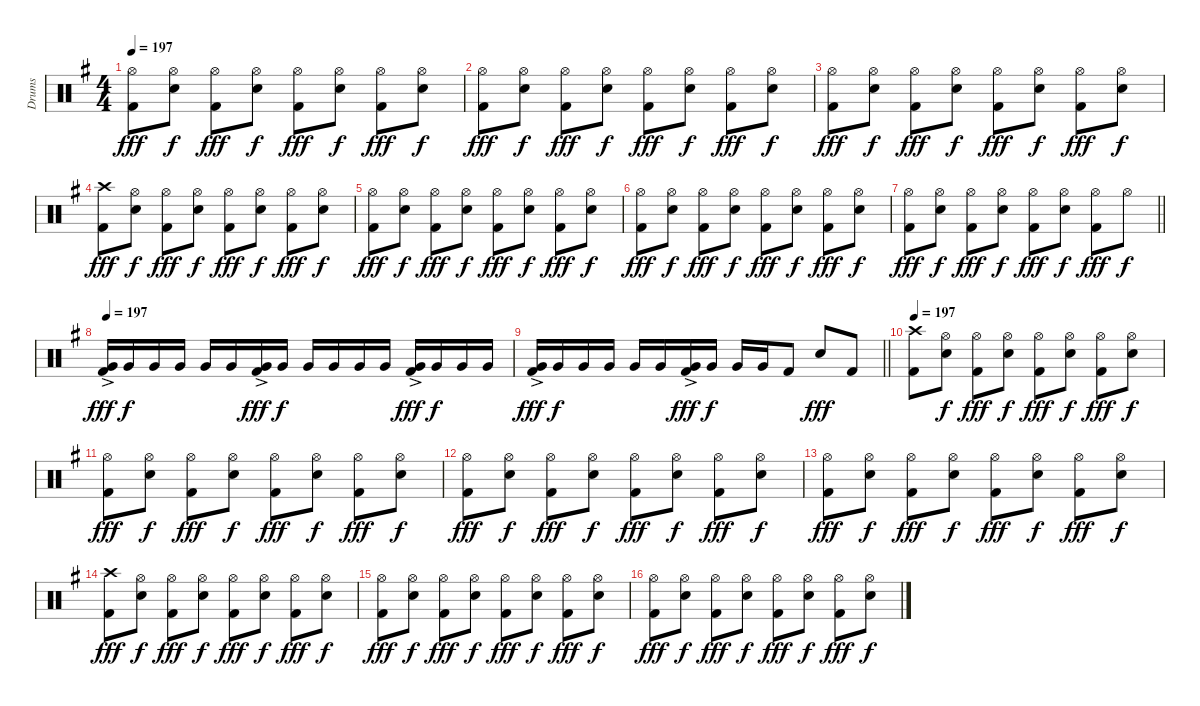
\track ("Drums" "Drums") {instrument percussion}
\staff {score}
\articulation defaults
\ts (4 4)
\tempo 197
\clef neutral
\ks eminor
("Hi-Hat (open)" "Kick (hit) 2").8{dy fff} ("Hi-Hat (open)" "Snare (hit) 2").8{dy f} ("Hi-Hat (open)" "Kick (hit) 2").8{dy fff} ("Hi-Hat (open)" "Snare (hit) 2").8{dy f} ("Hi-Hat (open)" "Kick (hit) 2").8{dy fff} ("Hi-Hat (open)" "Snare (hit) 2").8{dy f} ("Hi-Hat (open)" "Kick (hit) 2").8{dy fff} ("Hi-Hat (open)" "Snare (hit) 2").8{dy f} |
("Hi-Hat (open)" "Kick (hit) 2").8{dy fff} ("Hi-Hat (open)" "Snare (hit) 2").8{dy f} ("Hi-Hat (open)" "Kick (hit) 2").8{dy fff} ("Hi-Hat (open)" "Snare (hit) 2").8{dy f} ("Hi-Hat (open)" "Kick (hit) 2").8{dy fff} ("Hi-Hat (open)" "Snare (hit) 2").8{dy f} ("Hi-Hat (open)" "Kick (hit) 2").8{dy fff} ("Hi-Hat (open)" "Snare (hit) 2").8{dy f} |
("Hi-Hat (open)" "Kick (hit) 2").8{dy fff} ("Hi-Hat (open)" "Snare (hit) 2").8{dy f} ("Hi-Hat (open)" "Kick (hit) 2").8{dy fff} ("Hi-Hat (open)" "Snare (hit) 2").8{dy f} ("Hi-Hat (open)" "Kick (hit) 2").8{dy fff} ("Hi-Hat (open)" "Snare (hit) 2").8{dy f} ("Hi-Hat (open)" "Kick (hit) 2").8{dy fff} ("Hi-Hat (open)" "Snare (hit) 2").8{dy f} |
("Crash high (hit)" "Kick (hit) 2").8{dy fff} ("Hi-Hat (open)" "Snare (hit) 2").8{dy f} ("Hi-Hat (open)" "Kick (hit) 2").8{dy fff} ("Hi-Hat (open)" "Snare (hit) 2").8{dy f} ("Hi-Hat (open)" "Kick (hit) 2").8{dy fff} ("Hi-Hat (open)" "Snare (hit) 2").8{dy f} ("Hi-Hat (open)" "Kick (hit) 2").8{dy fff} ("Hi-Hat (open)" "Snare (hit) 2").8{dy f} |
("Hi-Hat (open)" "Kick (hit) 2").8{dy fff} ("Hi-Hat (open)" "Snare (hit) 2").8{dy f} ("Hi-Hat (open)" "Kick (hit) 2").8{dy fff} ("Hi-Hat (open)" "Snare (hit) 2").8{dy f} ("Hi-Hat (open)" "Kick (hit) 2").8{dy fff} ("Hi-Hat (open)" "Snare (hit) 2").8{dy f} ("Hi-Hat (open)" "Kick (hit) 2").8{dy fff} ("Hi-Hat (open)" "Snare (hit) 2").8{dy f} |
("Hi-Hat (open)" "Kick (hit) 2").8{dy fff} ("Hi-Hat (open)" "Snare (hit) 2").8{dy f} ("Hi-Hat (open)" "Kick (hit) 2").8{dy fff} ("Hi-Hat (open)" "Snare (hit) 2").8{dy f} ("Hi-Hat (open)" "Kick (hit) 2").8{dy fff} ("Hi-Hat (open)" "Snare (hit) 2").8{dy f} ("Hi-Hat (open)" "Kick (hit) 2").8{dy fff} ("Hi-Hat (open)" "Snare (hit) 2").8{dy f} |
\barLineRight lightlight
("Hi-Hat (open)" "Kick (hit) 2").8{dy fff} ("Hi-Hat (open)" "Snare (hit) 2").8{dy f} ("Hi-Hat (open)" "Kick (hit) 2").8{dy fff} ("Hi-Hat (open)" "Snare (hit) 2").8{dy f} ("Hi-Hat (open)" "Kick (hit) 2").8{dy fff} ("Hi-Hat (open)" "Snare (hit) 2").8{dy f} ("Hi-Hat (open)" "Kick (hit) 2").8{dy fff} "Hi-Hat (open)".8{dy f} |
\tempo 197
("Very Low Tom (hit)"{ac} "Kick (hit) 2").16{dy fff} "Very Low Tom (hit)".16{dy f} "Very Low Tom (hit)".16 "Very Low Tom (hit)".16 "Very Low Tom (hit)".16 "Very Low Tom (hit)".16 ("Very Low Tom (hit)"{ac} "Kick (hit) 2").16{dy fff} "Very Low Tom (hit)".16{dy f} "Very Low Tom (hit)".16 "Very Low Tom (hit)".16 "Very Low Tom (hit)".16 "Very Low Tom (hit)".16 ("Very Low Tom (hit)"{ac} "Kick (hit) 2").16{dy fff} "Very Low Tom (hit)".16{dy f} "Very Low Tom (hit)".16 "Very Low Tom (hit)".16 |
\barLineRight lightlight
("Very Low Tom (hit)"{ac} "Kick (hit) 2").16{dy fff} "Very Low Tom (hit)".16{dy f} "Very Low Tom (hit)".16 "Very Low Tom (hit)".16 "Very Low Tom (hit)".16 "Very Low Tom (hit)".16 ("Very Low Tom (hit)"{ac} "Kick (hit) 2").16{dy fff} "Very Low Tom (hit)".16{dy f} "Very Low Tom (hit)".16 "Very Low Tom (hit)".16 "Kick (hit) 2".8 "Snare (hit) 2".8{dy fff} "Kick (hit) 2".8 |
\tempo 197
("Crash high (hit)" "Kick (hit) 2").8 ("Hi-Hat (open)" "Snare (hit) 2").8{dy f} ("Hi-Hat (open)" "Kick (hit) 2").8{dy fff} ("Hi-Hat (open)" "Snare (hit) 2").8{dy f} ("Hi-Hat (open)" "Kick (hit) 2").8{dy fff} ("Hi-Hat (open)" "Snare (hit) 2").8{dy f} ("Hi-Hat (open)" "Kick (hit) 2").8{dy fff} ("Hi-Hat (open)" "Snare (hit) 2").8{dy f} |
("Hi-Hat (open)" "Kick (hit) 2").8{dy fff} ("Hi-Hat (open)" "Snare (hit) 2").8{dy f} ("Hi-Hat (open)" "Kick (hit) 2").8{dy fff} ("Hi-Hat (open)" "Snare (hit) 2").8{dy f} ("Hi-Hat (open)" "Kick (hit) 2").8{dy fff} ("Hi-Hat (open)" "Snare (hit) 2").8{dy f} ("Hi-Hat (open)" "Kick (hit) 2").8{dy fff} ("Hi-Hat (open)" "Snare (hit) 2").8{dy f} |
("Hi-Hat (open)" "Kick (hit) 2").8{dy fff} ("Hi-Hat (open)" "Snare (hit) 2").8{dy f} ("Hi-Hat (open)" "Kick (hit) 2").8{dy fff} ("Hi-Hat (open)" "Snare (hit) 2").8{dy f} ("Hi-Hat (open)" "Kick (hit) 2").8{dy fff} ("Hi-Hat (open)" "Snare (hit) 2").8{dy f} ("Hi-Hat (open)" "Kick (hit) 2").8{dy fff} ("Hi-Hat (open)" "Snare (hit) 2").8{dy f} |
("Hi-Hat (open)" "Kick (hit) 2").8{dy fff} ("Hi-Hat (open)" "Snare (hit) 2").8{dy f} ("Hi-Hat (open)" "Kick (hit) 2").8{dy fff} ("Hi-Hat (open)" "Snare (hit) 2").8{dy f} ("Hi-Hat (open)" "Kick (hit) 2").8{dy fff} ("Hi-Hat (open)" "Snare (hit) 2").8{dy f} ("Hi-Hat (open)" "Kick (hit) 2").8{dy fff} ("Hi-Hat (open)" "Snare (hit) 2").8{dy f} |
("Crash high (hit)" "Kick (hit) 2").8{dy fff} ("Hi-Hat (open)" "Snare (hit) 2").8{dy f} ("Hi-Hat (open)" "Kick (hit) 2").8{dy fff} ("Hi-Hat (open)" "Snare (hit) 2").8{dy f} ("Hi-Hat (open)" "Kick (hit) 2").8{dy fff} ("Hi-Hat (open)" "Snare (hit) 2").8{dy f} ("Hi-Hat (open)" "Kick (hit) 2").8{dy fff} ("Hi-Hat (open)" "Snare (hit) 2").8{dy f} |
("Hi-Hat (open)" "Kick (hit) 2").8{dy fff} ("Hi-Hat (open)" "Snare (hit) 2").8{dy f} ("Hi-Hat (open)" "Kick (hit) 2").8{dy fff} ("Hi-Hat (open)" "Snare (hit) 2").8{dy f} ("Hi-Hat (open)" "Kick (hit) 2").8{dy fff} ("Hi-Hat (open)" "Snare (hit) 2").8{dy f} ("Hi-Hat (open)" "Kick (hit) 2").8{dy fff} ("Hi-Hat (open)" "Snare (hit) 2").8{dy f} |
("Hi-Hat (open)" "Kick (hit) 2").8{dy fff} ("Hi-Hat (open)" "Snare (hit) 2").8{dy f} ("Hi-Hat (open)" "Kick (hit) 2").8{dy fff} ("Hi-Hat (open)" "Snare (hit) 2").8{dy f} ("Hi-Hat (open)" "Kick (hit) 2").8{dy fff} ("Hi-Hat (open)" "Snare (hit) 2").8{dy f} ("Hi-Hat (open)" "Kick (hit) 2").8{dy fff} ("Hi-Hat (open)" "Snare (hit) 2").8{dy f}
